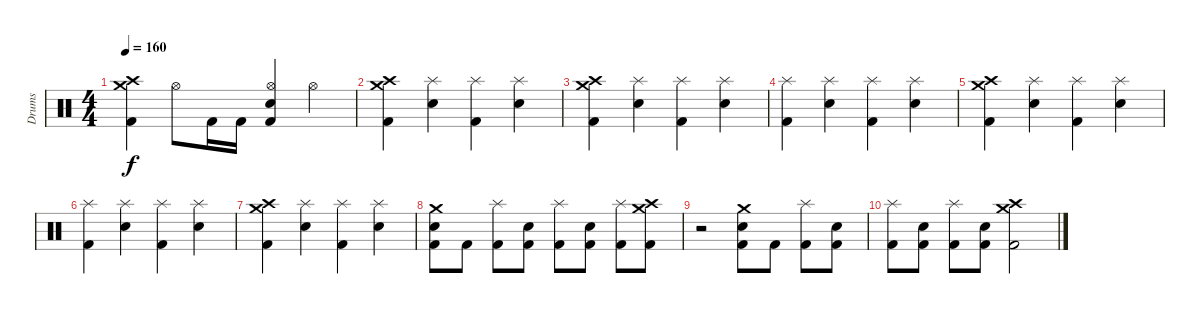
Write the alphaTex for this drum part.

\track ("Drums" "Drums") {instrument percussion}
\staff {score}
\articulation defaults
\ts (4 4)
\tempo 160
\clef neutral
\ks c
("Crash medium (hit)" "Crash high (hit)" "Kick (hit) 2").4{dy f} "Hi-Hat (open)".8 "Kick (hit) 2".16 "Kick (hit) 2".16 ("Hi-Hat (open)" "Snare (hit) 2" "Kick (hit) 2").4 "Hi-Hat (open)".4 |
("Crash medium (hit)" "Crash high (hit)" "Kick (hit) 2").4 ("Splash (hit)" "Snare (hit) 2").4 ("Splash (hit)" "Kick (hit) 2").4 ("Splash (hit)" "Snare (hit) 2").4 |
("Crash medium (hit)" "Crash high (hit)" "Kick (hit) 2").4 ("Splash (hit)" "Snare (hit) 2").4 ("Splash (hit)" "Kick (hit) 2").4 ("Splash (hit)" "Snare (hit) 2").4 |
("Splash (hit)" "Kick (hit) 2").4 ("Splash (hit)" "Snare (hit) 2").4 ("Splash (hit)" "Kick (hit) 2").4 ("Splash (hit)" "Snare (hit) 2").4 |
("Crash medium (hit)" "Crash high (hit)" "Kick (hit) 2").4 ("Splash (hit)" "Snare (hit) 2").4 ("Splash (hit)" "Kick (hit) 2").4 ("Splash (hit)" "Snare (hit) 2").4 |
("Splash (hit)" "Kick (hit) 2").4 ("Splash (hit)" "Snare (hit) 2").4 ("Splash (hit)" "Kick (hit) 2").4 ("Splash (hit)" "Snare (hit) 2").4 |
("Crash medium (hit)" "Crash high (hit)" "Kick (hit) 2").4 ("Splash (hit)" "Snare (hit) 2").4 ("Splash (hit)" "Kick (hit) 2").4 ("Splash (hit)" "Snare (hit) 2").4 |
("Crash medium (hit)" "Snare (hit) 2" "Kick (hit) 2").8 "Kick (hit) 2".8 ("Splash (hit)" "Kick (hit) 2").8 ("Snare (hit) 2" "Kick (hit) 2").8 ("Splash (hit)" "Kick (hit) 2").8 ("Snare (hit) 2" "Kick (hit) 2").8 ("Splash (hit)" "Kick (hit) 2").8 ("Crash high (hit)" "Crash medium (hit)" "Kick (hit) 2").8 |
r.2 ("Crash medium (hit)" "Snare (hit) 2" "Kick (hit) 2").8 "Kick (hit) 2".8 ("Splash (hit)" "Kick (hit) 2").8 ("Snare (hit) 2" "Kick (hit) 2").8 |
("Splash (hit)" "Kick (hit) 2").8 ("Snare (hit) 2" "Kick (hit) 2").8 ("Splash (hit)" "Kick (hit) 2").8 ("Snare (hit) 2" "Kick (hit) 2").8 ("Crash high (hit)" "Crash medium (hit)" "Kick (hit) 2").2
